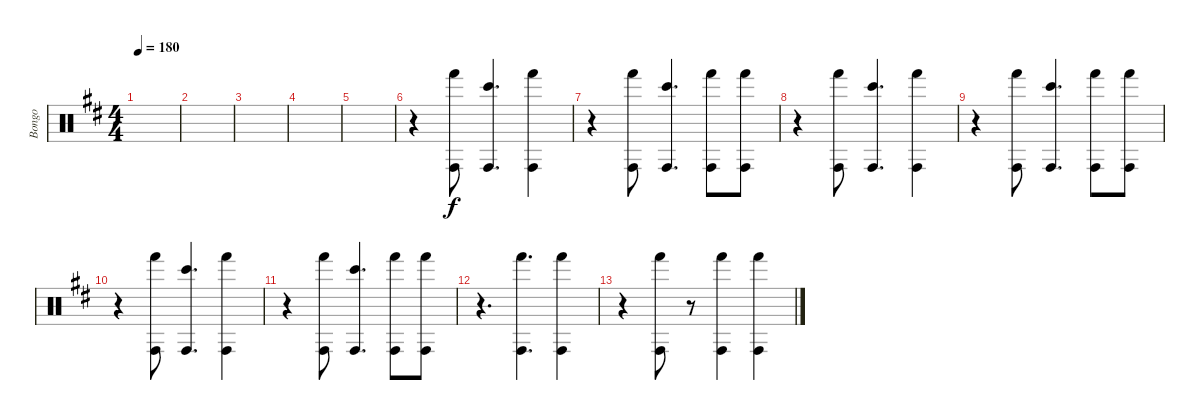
\track ("Bongo" "Bongo") {instrument percussion}
\staff {score}
\articulation defaults
\ts (4 4)
\tempo 180
\clef neutral
\ks d
|
|
|
|
|
r.4 ("Hand (hit)" "Conga high (hit)").8 ("Bongo High (hit)" "Conga high (hit)").4{d} ("Hand (hit)" "Conga high (hit)").4 |
r.4 ("Hand (hit)" "Conga high (hit)").8 ("Bongo High (hit)" "Conga high (hit)").4{d} ("Hand (hit)" "Conga high (hit)").8 ("Hand (hit)" "Conga high (hit)").8 |
r.4 ("Hand (hit)" "Conga high (hit)").8 ("Bongo High (hit)" "Conga high (hit)").4{d} ("Hand (hit)" "Conga high (hit)").4 |
r.4 ("Hand (hit)" "Conga high (hit)").8 ("Bongo High (hit)" "Conga high (hit)").4{d} ("Hand (hit)" "Conga high (hit)").8 ("Hand (hit)" "Conga high (hit)").8 |
r.4 ("Hand (hit)" "Conga high (hit)").8 ("Bongo High (hit)" "Conga high (hit)").4{d} ("Hand (hit)" "Conga high (hit)").4 |
r.4 ("Hand (hit)" "Conga high (hit)").8 ("Bongo High (hit)" "Conga high (hit)").4{d} ("Hand (hit)" "Conga high (hit)").8 ("Hand (hit)" "Conga high (hit)").8 |
r.4{d} ("Hand (hit)" "Conga high (hit)").4{d} ("Hand (hit)" "Conga high (hit)").4 |
r.4 ("Hand (hit)" "Conga high (hit)").8 r.8 ("Hand (hit)" "Conga high (hit)").4 ("Hand (hit)" "Conga high (hit)").4
